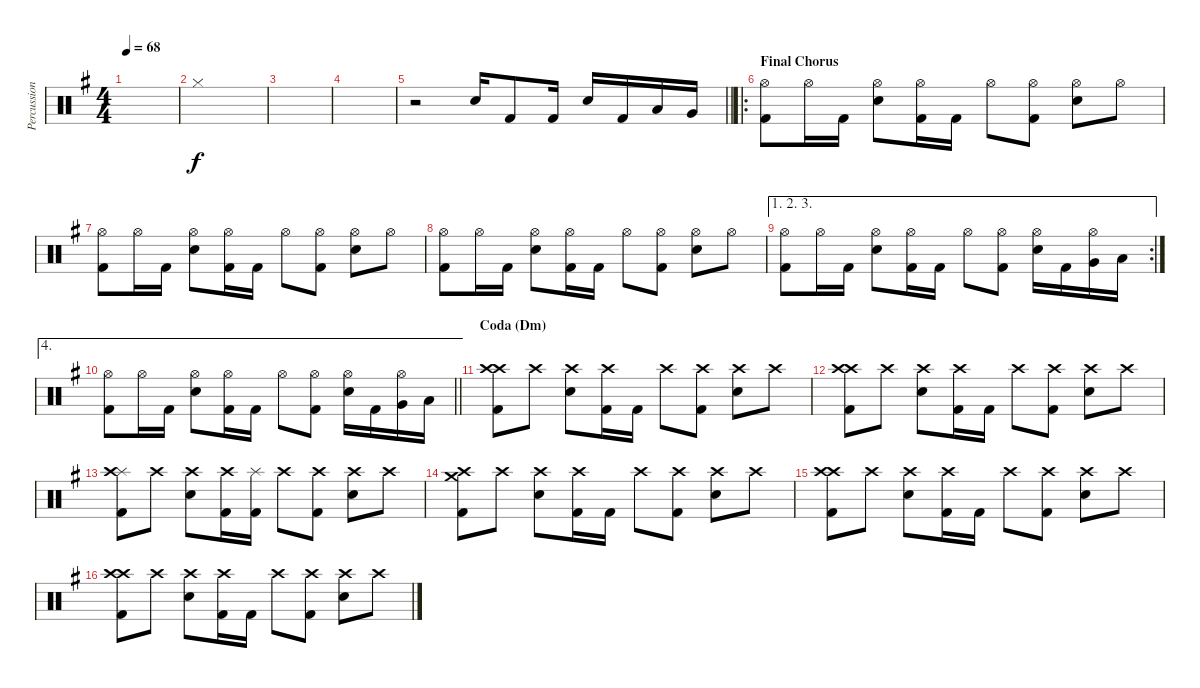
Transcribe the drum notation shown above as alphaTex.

\track ("Percussion" "Percussion") {instrument percussion}
\staff {score}
\articulation defaults
\ts (4 4)
\tempo 68
\clef neutral
\ks eminor
|
"Hi-Hat (closed)".1 |
|
|
\barLineRight lightlight
r.2 "Snare (hit) 2".16 "Kick (hit) 2".8 "Kick (hit) 2".16 "Snare (hit) 2".16 "Kick (hit) 2".16 "Low Tom (hit)".16 "Very Low Tom (hit)".16 |
\ro
\section ("" "Final Chorus")
("Hi-Hat (open)" "Kick (hit) 2").8 "Hi-Hat (open)".16 "Kick (hit) 2".16 ("Hi-Hat (open)" "Snare (hit) 2").8 ("Hi-Hat (open)" "Kick (hit) 2").16 "Kick (hit) 2".16 "Hi-Hat (open)".8 ("Hi-Hat (open)" "Kick (hit) 2").8 ("Hi-Hat (open)" "Snare (hit) 2").8 "Hi-Hat (open)".8 |
("Hi-Hat (open)" "Kick (hit) 2").8 "Hi-Hat (open)".16 "Kick (hit) 2".16 ("Hi-Hat (open)" "Snare (hit) 2").8 ("Hi-Hat (open)" "Kick (hit) 2").16 "Kick (hit) 2".16 "Hi-Hat (open)".8 ("Hi-Hat (open)" "Kick (hit) 2").8 ("Hi-Hat (open)" "Snare (hit) 2").8 "Hi-Hat (open)".8 |
("Hi-Hat (open)" "Kick (hit) 2").8 "Hi-Hat (open)".16 "Kick (hit) 2".16 ("Hi-Hat (open)" "Snare (hit) 2").8 ("Hi-Hat (open)" "Kick (hit) 2").16 "Kick (hit) 2".16 "Hi-Hat (open)".8 ("Hi-Hat (open)" "Kick (hit) 2").8 ("Hi-Hat (open)" "Snare (hit) 2").8 "Hi-Hat (open)".8 |
\ae (1 2 3)
\rc 2
("Hi-Hat (open)" "Kick (hit) 2").8 "Hi-Hat (open)".16 "Kick (hit) 2".16 ("Hi-Hat (open)" "Snare (hit) 2").8 ("Hi-Hat (open)" "Kick (hit) 2").16 "Kick (hit) 2".16 "Hi-Hat (open)".8 ("Hi-Hat (open)" "Kick (hit) 2").8 ("Hi-Hat (open)" "Snare (hit) 2").16 "Kick (hit) 2".16 ("Hi-Hat (open)" "Very Low Tom (hit)").16 "Low Floor Tom (hit)".16 |
\ae 4
\barLineRight lightlight
("Hi-Hat (open)" "Kick (hit) 2").8 "Hi-Hat (open)".16 "Kick (hit) 2".16 ("Hi-Hat (open)" "Snare (hit) 2").8 ("Hi-Hat (open)" "Kick (hit) 2").16 "Kick (hit) 2".16 "Hi-Hat (open)".8 ("Hi-Hat (open)" "Kick (hit) 2").8 ("Hi-Hat (open)" "Snare (hit) 2").16 "Kick (hit) 2".16 ("Hi-Hat (open)" "Very Low Tom (hit)").16 "Low Floor Tom (hit)".16 |
\section ("" "Coda (Dm)")
("Crash high (hit)" "Crash high (hit)" "Kick (hit) 2").8 "Crash high (hit)".8 ("Crash high (hit)" "Snare (hit) 2").8 ("Crash high (hit)" "Kick (hit) 2").16 "Kick (hit) 2".16 "Crash high (hit)".8 ("Crash high (hit)" "Kick (hit) 2").8 ("Crash high (hit)" "Snare (hit) 2").8 "Crash high (hit)".8 |
("Crash high (hit)" "Crash high (hit)" "Kick (hit) 2").8 "Crash high (hit)".8 ("Crash high (hit)" "Snare (hit) 2").8 ("Crash high (hit)" "Kick (hit) 2").16 "Kick (hit) 2".16 "Crash high (hit)".8 ("Crash high (hit)" "Kick (hit) 2").8 ("Crash high (hit)" "Snare (hit) 2").8 "Crash high (hit)".8 |
("Splash (hit)" "Crash high (hit)" "Kick (hit) 2").8 "Crash high (hit)".8 ("Crash high (hit)" "Snare (hit) 2").8 ("Crash high (hit)" "Kick (hit) 2").16 ("Splash (hit)" "Kick (hit) 2").16 "Crash high (hit)".8 ("Crash high (hit)" "Kick (hit) 2").8 ("Crash high (hit)" "Snare (hit) 2").8 "Crash high (hit)".8 |
("Crash medium (hit)" "Crash high (hit)" "Kick (hit) 2").8 "Crash high (hit)".8 ("Crash high (hit)" "Snare (hit) 2").8 ("Crash high (hit)" "Kick (hit) 2").16 "Kick (hit) 2".16 "Crash high (hit)".8 ("Crash high (hit)" "Kick (hit) 2").8 ("Crash high (hit)" "Snare (hit) 2").8 "Crash high (hit)".8 |
("Crash high (hit)" "Crash high (hit)" "Kick (hit) 2").8 "Crash high (hit)".8 ("Crash high (hit)" "Snare (hit) 2").8 ("Crash high (hit)" "Kick (hit) 2").16 "Kick (hit) 2".16 "Crash high (hit)".8 ("Crash high (hit)" "Kick (hit) 2").8 ("Crash high (hit)" "Snare (hit) 2").8 "Crash high (hit)".8 |
("Crash high (hit)" "Crash high (hit)" "Kick (hit) 2").8 "Crash high (hit)".8 ("Crash high (hit)" "Snare (hit) 2").8 ("Crash high (hit)" "Kick (hit) 2").16 "Kick (hit) 2".16 "Crash high (hit)".8 ("Crash high (hit)" "Kick (hit) 2").8 ("Crash high (hit)" "Snare (hit) 2").8 "Crash high (hit)".8
